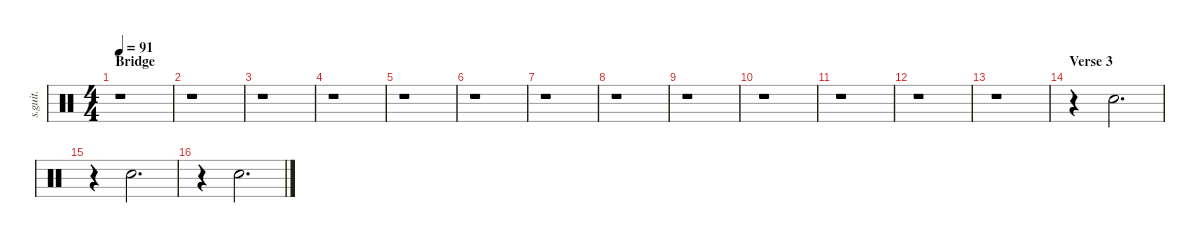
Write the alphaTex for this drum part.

\defaultSystemsLayout 4
\hideDynamics
\bracketExtendMode nobrackets
\track ("Hand Clap" "s.guit.") {instrument percussion}
\staff {score}
\articulation defaults
\ts (4 4)
\section ("" "Bridge")
\tempo 91
\clef neutral
\ks c
r.1{dy fff} |
r.1 |
r.1 |
r.1 |
r.1 |
r.1 |
r.1 |
r.1 |
r.1 |
r.1 |
r.1 |
r.1 |
r.1 |
\section ("" "Verse 3")
r.4 "Hand Clap (hit)".2{d} |
r.4 "Hand Clap (hit)".2{d} |
r.4 "Hand Clap (hit)".2{d}
